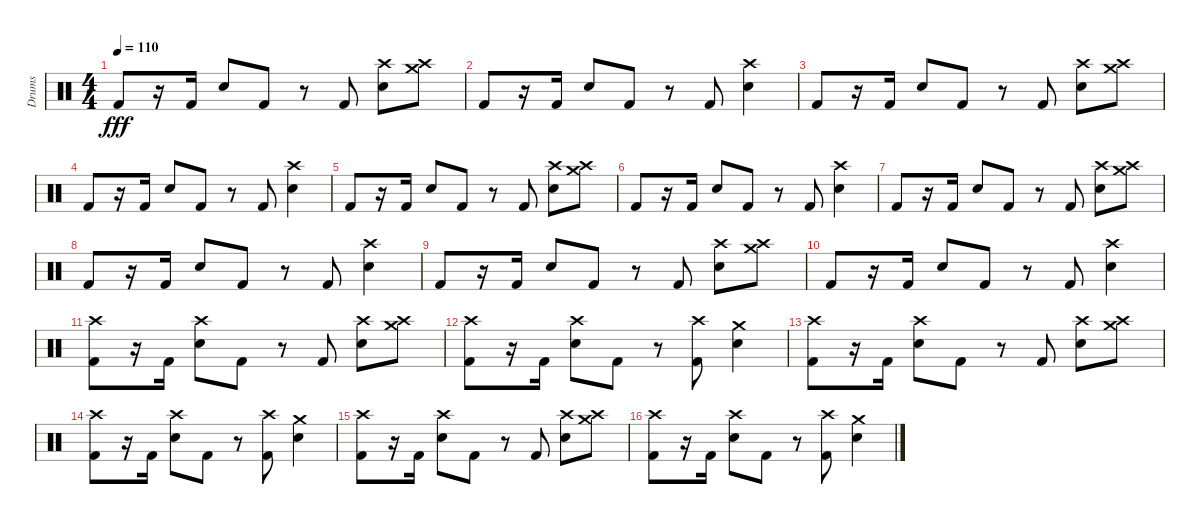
\track ("Drums" "Drums") {instrument percussion}
\staff {score}
\articulation defaults
\ts (4 4)
\tempo 110
\clef neutral
\ks c "Kick (hit) 2".8{dy fff}
r.16 "Kick (hit) 2".16 "Electric Snare (hit)".8 "Kick (hit) 2".8 r.8 "Kick (hit) 2".8 ("Crash high (hit)" "Electric Snare (hit)").8 ("Crash high (hit)" "Crash medium (hit)").8 |
"Kick (hit) 2".8 r.16 "Kick (hit) 2".16 "Electric Snare (hit)".8 "Kick (hit) 2".8 r.8 "Kick (hit) 2".8 ("Crash high (hit)" "Electric Snare (hit)").4 |
"Kick (hit) 2".8 r.16 "Kick (hit) 2".16 "Electric Snare (hit)".8 "Kick (hit) 2".8 r.8 "Kick (hit) 2".8 ("Crash high (hit)" "Electric Snare (hit)").8 ("Crash high (hit)" "Crash medium (hit)").8 |
"Kick (hit) 2".8 r.16 "Kick (hit) 2".16 "Electric Snare (hit)".8 "Kick (hit) 2".8 r.8 "Kick (hit) 2".8 ("Crash high (hit)" "Electric Snare (hit)").4 |
"Kick (hit) 2".8 r.16 "Kick (hit) 2".16 "Electric Snare (hit)".8 "Kick (hit) 2".8 r.8 "Kick (hit) 2".8 ("Crash high (hit)" "Electric Snare (hit)").8 ("Crash high (hit)" "Crash medium (hit)").8 |
"Kick (hit) 2".8 r.16 "Kick (hit) 2".16 "Electric Snare (hit)".8 "Kick (hit) 2".8 r.8 "Kick (hit) 2".8 ("Crash high (hit)" "Electric Snare (hit)").4 |
"Kick (hit) 2".8 r.16 "Kick (hit) 2".16 "Electric Snare (hit)".8 "Kick (hit) 2".8 r.8 "Kick (hit) 2".8 ("Crash high (hit)" "Electric Snare (hit)").8 ("Crash high (hit)" "Crash medium (hit)").8 |
"Kick (hit) 2".8 r.16 "Kick (hit) 2".16 "Electric Snare (hit)".8 "Kick (hit) 2".8 r.8 "Kick (hit) 2".8 ("Crash high (hit)" "Electric Snare (hit)").4 |
"Kick (hit) 2".8 r.16 "Kick (hit) 2".16 "Electric Snare (hit)".8 "Kick (hit) 2".8 r.8 "Kick (hit) 2".8 ("Crash high (hit)" "Electric Snare (hit)").8 ("Crash high (hit)" "Crash medium (hit)").8 |
"Kick (hit) 2".8 r.16 "Kick (hit) 2".16 "Electric Snare (hit)".8 "Kick (hit) 2".8 r.8 "Kick (hit) 2".8 ("Crash high (hit)" "Electric Snare (hit)").4 |
("Crash high (hit)" "Kick (hit) 2").8 r.16 "Kick (hit) 2".16 ("Crash high (hit)" "Electric Snare (hit)").8 "Kick (hit) 2".8 r.8 "Kick (hit) 2".8 ("Crash high (hit)" "Electric Snare (hit)").8 ("Crash high (hit)" "Crash medium (hit)").8 |
("Crash high (hit)" "Kick (hit) 2").8 r.16 "Kick (hit) 2".16 ("Crash high (hit)" "Electric Snare (hit)").8 "Kick (hit) 2".8 r.8 ("Crash high (hit)" "Kick (hit) 2").8 ("Crash medium (hit)" "Electric Snare (hit)").4 |
("Crash high (hit)" "Kick (hit) 2").8 r.16 "Kick (hit) 2".16 ("Crash high (hit)" "Electric Snare (hit)").8 "Kick (hit) 2".8 r.8 "Kick (hit) 2".8 ("Crash high (hit)" "Electric Snare (hit)").8 ("Crash high (hit)" "Crash medium (hit)").8 |
("Crash high (hit)" "Kick (hit) 2").8 r.16 "Kick (hit) 2".16 ("Crash high (hit)" "Electric Snare (hit)").8 "Kick (hit) 2".8 r.8 ("Crash high (hit)" "Kick (hit) 2").8 ("Crash medium (hit)" "Electric Snare (hit)").4 |
("Crash high (hit)" "Kick (hit) 2").8 r.16 "Kick (hit) 2".16 ("Crash high (hit)" "Electric Snare (hit)").8 "Kick (hit) 2".8 r.8 "Kick (hit) 2".8 ("Crash high (hit)" "Electric Snare (hit)").8 ("Crash high (hit)" "Crash medium (hit)").8 |
("Crash high (hit)" "Kick (hit) 2").8 r.16 "Kick (hit) 2".16 ("Crash high (hit)" "Electric Snare (hit)").8 "Kick (hit) 2".8 r.8 ("Crash high (hit)" "Kick (hit) 2").8 ("Crash medium (hit)" "Electric Snare (hit)").4
